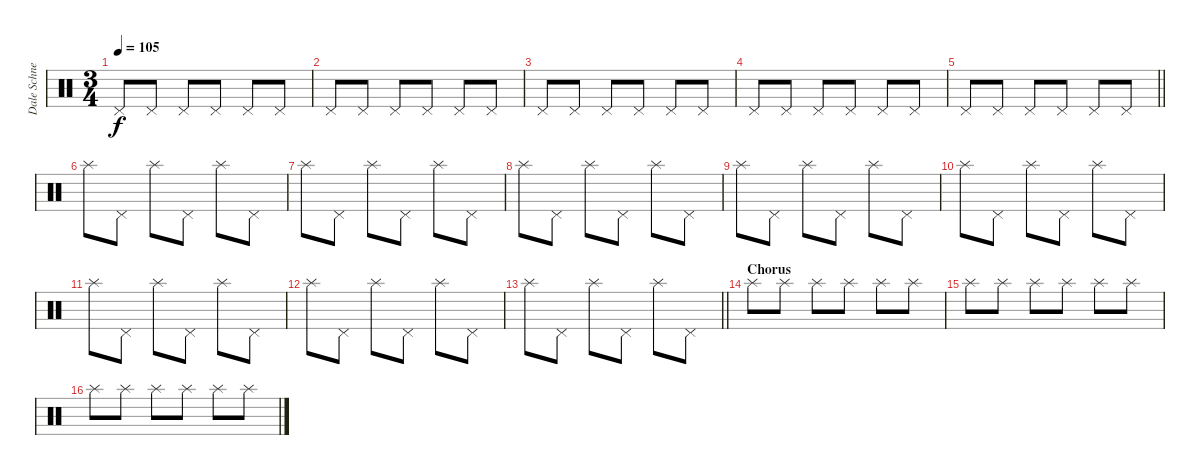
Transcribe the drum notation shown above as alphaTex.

\track ("Dale Schnettler (Drums)" "Dale Schne") {instrument percussion}
\staff {score}
\articulation defaults
\ts (3 4)
\tempo 105
\clef neutral
\ks c "Pedal Hi-Hat (hit)".8{dy f} "Pedal Hi-Hat (hit)".8 "Pedal Hi-Hat (hit)".8 "Pedal Hi-Hat (hit)".8 "Pedal Hi-Hat (hit)".8 "Pedal Hi-Hat (hit)".8
|
"Pedal Hi-Hat (hit)".8 "Pedal Hi-Hat (hit)".8 "Pedal Hi-Hat (hit)".8 "Pedal Hi-Hat (hit)".8 "Pedal Hi-Hat (hit)".8 "Pedal Hi-Hat (hit)".8 |
"Pedal Hi-Hat (hit)".8 "Pedal Hi-Hat (hit)".8 "Pedal Hi-Hat (hit)".8 "Pedal Hi-Hat (hit)".8 "Pedal Hi-Hat (hit)".8 "Pedal Hi-Hat (hit)".8 |
"Pedal Hi-Hat (hit)".8 "Pedal Hi-Hat (hit)".8 "Pedal Hi-Hat (hit)".8 "Pedal Hi-Hat (hit)".8 "Pedal Hi-Hat (hit)".8 "Pedal Hi-Hat (hit)".8 |
\barLineRight lightlight "Pedal Hi-Hat (hit)".8 "Pedal Hi-Hat (hit)".8 "Pedal Hi-Hat (hit)".8 "Pedal Hi-Hat (hit)".8 "Pedal Hi-Hat (hit)".8 "Pedal Hi-Hat (hit)".8
|
"Splash (hit)".8 "Pedal Hi-Hat (hit)".8 "Splash (hit)".8 "Pedal Hi-Hat (hit)".8 "Splash (hit)".8 "Pedal Hi-Hat (hit)".8 |
"Splash (hit)".8 "Pedal Hi-Hat (hit)".8 "Splash (hit)".8 "Pedal Hi-Hat (hit)".8 "Splash (hit)".8 "Pedal Hi-Hat (hit)".8 |
"Splash (hit)".8 "Pedal Hi-Hat (hit)".8 "Splash (hit)".8 "Pedal Hi-Hat (hit)".8 "Splash (hit)".8 "Pedal Hi-Hat (hit)".8 |
"Splash (hit)".8 "Pedal Hi-Hat (hit)".8 "Splash (hit)".8 "Pedal Hi-Hat (hit)".8 "Splash (hit)".8 "Pedal Hi-Hat (hit)".8 |
"Splash (hit)".8 "Pedal Hi-Hat (hit)".8 "Splash (hit)".8 "Pedal Hi-Hat (hit)".8 "Splash (hit)".8 "Pedal Hi-Hat (hit)".8 |
"Splash (hit)".8 "Pedal Hi-Hat (hit)".8 "Splash (hit)".8 "Pedal Hi-Hat (hit)".8 "Splash (hit)".8 "Pedal Hi-Hat (hit)".8 |
"Splash (hit)".8 "Pedal Hi-Hat (hit)".8 "Splash (hit)".8 "Pedal Hi-Hat (hit)".8 "Splash (hit)".8 "Pedal Hi-Hat (hit)".8 |
\barLineRight lightlight "Splash (hit)".8 "Pedal Hi-Hat (hit)".8 "Splash (hit)".8 "Pedal Hi-Hat (hit)".8 "Splash (hit)".8 "Pedal Hi-Hat (hit)".8
|
\section ("" "Chorus")
"Splash (hit)".8 "Splash (hit)".8 "Splash (hit)".8 "Splash (hit)".8 "Splash (hit)".8 "Splash (hit)".8 |
"Splash (hit)".8 "Splash (hit)".8 "Splash (hit)".8 "Splash (hit)".8 "Splash (hit)".8 "Splash (hit)".8 |
"Splash (hit)".8 "Splash (hit)".8 "Splash (hit)".8 "Splash (hit)".8 "Splash (hit)".8 "Splash (hit)".8
